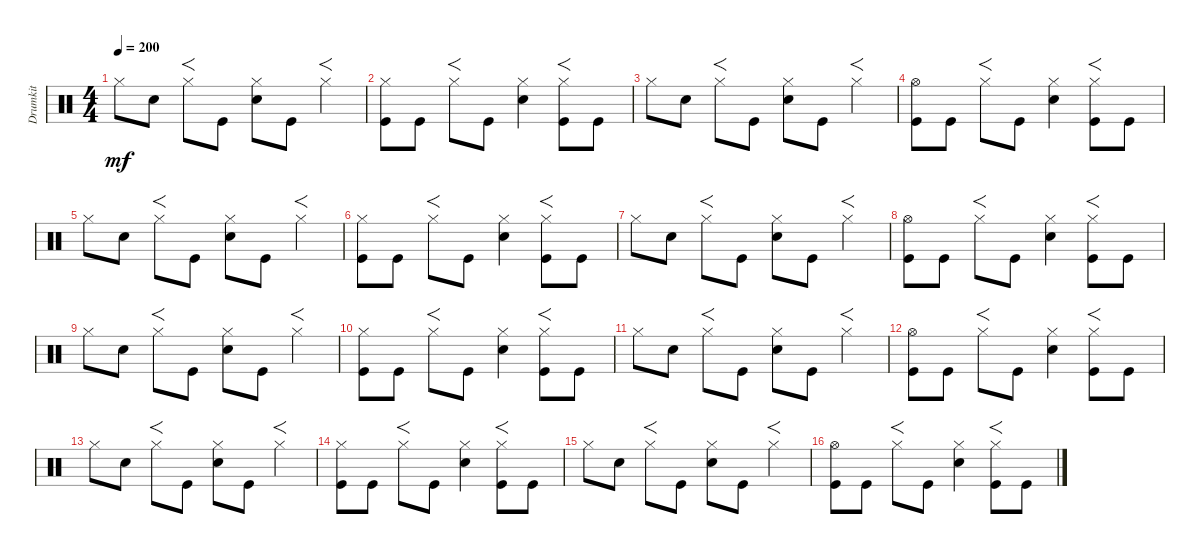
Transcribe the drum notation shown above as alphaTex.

\track ("Drumkit" "Drumkit") {instrument percussion}
\staff {score}
\articulation defaults
\ts (4 4)
\tempo 200
\clef neutral
\ks c "Hi-Hat (closed)".8{dy mf} "Snare (hit) 2".8 "Hi-Hat (closed)".8{f} "Kick (hit)".8
("Hi-Hat (closed)" "Snare (hit) 2").8 "Kick (hit)".8 "Hi-Hat (closed)".4{f} |
("Kick (hit)" "Hi-Hat (closed)").8 "Kick (hit)".8 "Hi-Hat (closed)".8{f} "Kick (hit)".8 ("Hi-Hat (closed)" "Snare (hit) 2").4 ("Hi-Hat (closed)" "Kick (hit)").8{f} "Kick (hit)".8 |
"Hi-Hat (closed)".8 "Snare (hit) 2".8 "Hi-Hat (closed)".8{f} "Kick (hit)".8 ("Hi-Hat (closed)" "Snare (hit) 2").8 "Kick (hit)".8 "Hi-Hat (closed)".4{f} |
("Hi-Hat (open)" "Kick (hit)").8 "Kick (hit)".8 "Hi-Hat (closed)".8{f} "Kick (hit)".8 ("Hi-Hat (closed)" "Snare (hit) 2").4 ("Hi-Hat (closed)" "Kick (hit)").8{f} "Kick (hit)".8 |
"Hi-Hat (closed)".8 "Snare (hit) 2".8 "Hi-Hat (closed)".8{f} "Kick (hit)".8 ("Hi-Hat (closed)" "Snare (hit) 2").8 "Kick (hit)".8 "Hi-Hat (closed)".4{f} |
("Kick (hit)" "Hi-Hat (closed)").8 "Kick (hit)".8 "Hi-Hat (closed)".8{f} "Kick (hit)".8 ("Hi-Hat (closed)" "Snare (hit) 2").4 ("Hi-Hat (closed)" "Kick (hit)").8{f} "Kick (hit)".8 |
"Hi-Hat (closed)".8 "Snare (hit) 2".8 "Hi-Hat (closed)".8{f} "Kick (hit)".8 ("Hi-Hat (closed)" "Snare (hit) 2").8 "Kick (hit)".8 "Hi-Hat (closed)".4{f} |
("Hi-Hat (open)" "Kick (hit)").8 "Kick (hit)".8 "Hi-Hat (closed)".8{f} "Kick (hit)".8 ("Hi-Hat (closed)" "Snare (hit) 2").4 ("Hi-Hat (closed)" "Kick (hit)").8{f} "Kick (hit)".8 |
"Hi-Hat (closed)".8 "Snare (hit) 2".8 "Hi-Hat (closed)".8{f} "Kick (hit)".8 ("Hi-Hat (closed)" "Snare (hit) 2").8 "Kick (hit)".8 "Hi-Hat (closed)".4{f} |
("Kick (hit)" "Hi-Hat (closed)").8 "Kick (hit)".8 "Hi-Hat (closed)".8{f} "Kick (hit)".8 ("Hi-Hat (closed)" "Snare (hit) 2").4 ("Hi-Hat (closed)" "Kick (hit)").8{f} "Kick (hit)".8 |
"Hi-Hat (closed)".8 "Snare (hit) 2".8 "Hi-Hat (closed)".8{f} "Kick (hit)".8 ("Hi-Hat (closed)" "Snare (hit) 2").8 "Kick (hit)".8 "Hi-Hat (closed)".4{f} |
("Hi-Hat (open)" "Kick (hit)").8 "Kick (hit)".8 "Hi-Hat (closed)".8{f} "Kick (hit)".8 ("Hi-Hat (closed)" "Snare (hit) 2").4 ("Hi-Hat (closed)" "Kick (hit)").8{f} "Kick (hit)".8 |
"Hi-Hat (closed)".8 "Snare (hit) 2".8 "Hi-Hat (closed)".8{f} "Kick (hit)".8 ("Hi-Hat (closed)" "Snare (hit) 2").8 "Kick (hit)".8 "Hi-Hat (closed)".4{f} |
("Kick (hit)" "Hi-Hat (closed)").8 "Kick (hit)".8 "Hi-Hat (closed)".8{f} "Kick (hit)".8 ("Hi-Hat (closed)" "Snare (hit) 2").4 ("Hi-Hat (closed)" "Kick (hit)").8{f} "Kick (hit)".8 |
"Hi-Hat (closed)".8 "Snare (hit) 2".8 "Hi-Hat (closed)".8{f} "Kick (hit)".8 ("Hi-Hat (closed)" "Snare (hit) 2").8 "Kick (hit)".8 "Hi-Hat (closed)".4{f} |
("Hi-Hat (open)" "Kick (hit)").8 "Kick (hit)".8 "Hi-Hat (closed)".8{f} "Kick (hit)".8 ("Hi-Hat (closed)" "Snare (hit) 2").4 ("Hi-Hat (closed)" "Kick (hit)").8{f} "Kick (hit)".8
